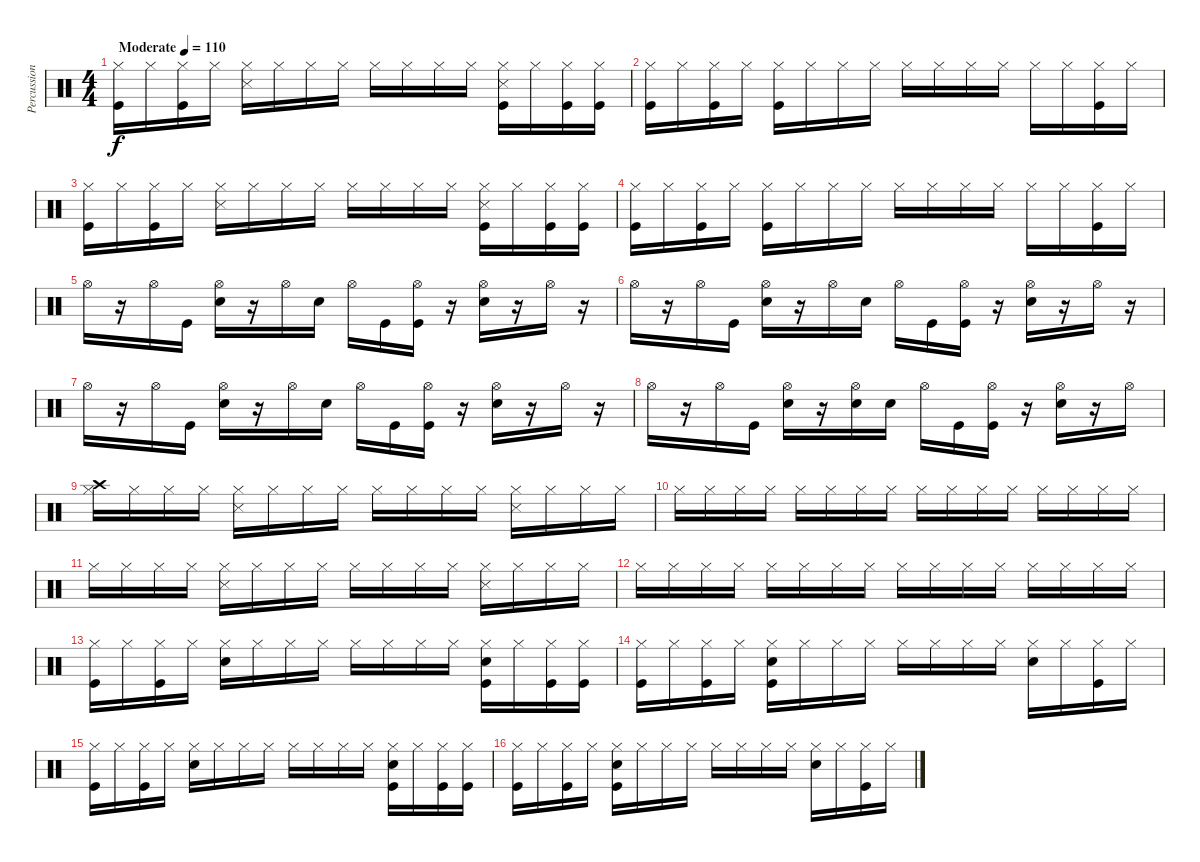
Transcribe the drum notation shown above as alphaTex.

\track ("Percussion" "Percussion") {instrument percussion}
\staff {score}
\articulation defaults
\ts (4 4)
\tempo (110 "Moderate")
\clef neutral
\ks c
("Hi-Hat (closed)" "Kick (hit)").16{dy f} "Hi-Hat (closed)".16 ("Hi-Hat (closed)" "Kick (hit)").16 "Hi-Hat (closed)".16 ("Hi-Hat (closed)" "Snare (side stick) 3").16 "Hi-Hat (closed)".16 "Hi-Hat (closed)".16 "Hi-Hat (closed)".16 "Hi-Hat (closed)".16 "Hi-Hat (closed)".16 "Hi-Hat (closed)".16 "Hi-Hat (closed)".16 ("Hi-Hat (closed)" "Snare (side stick) 3" "Kick (hit)").16 "Hi-Hat (closed)".16 ("Hi-Hat (closed)" "Kick (hit)").16 ("Hi-Hat (closed)" "Kick (hit)").16 |
("Hi-Hat (closed)" "Kick (hit)").16 "Hi-Hat (closed)".16 ("Hi-Hat (closed)" "Kick (hit)").16 "Hi-Hat (closed)".16 ("Hi-Hat (closed)" "Kick (hit)").16 "Hi-Hat (closed)".16 "Hi-Hat (closed)".16 "Hi-Hat (closed)".16 "Hi-Hat (closed)".16 "Hi-Hat (closed)".16 "Hi-Hat (closed)".16 "Hi-Hat (closed)".16 "Hi-Hat (closed)".16 "Hi-Hat (closed)".16 ("Hi-Hat (closed)" "Kick (hit)").16 "Hi-Hat (closed)".16 |
("Hi-Hat (closed)" "Kick (hit)").16 "Hi-Hat (closed)".16 ("Hi-Hat (closed)" "Kick (hit)").16 "Hi-Hat (closed)".16 ("Hi-Hat (closed)" "Snare (side stick) 3").16 "Hi-Hat (closed)".16 "Hi-Hat (closed)".16 "Hi-Hat (closed)".16 "Hi-Hat (closed)".16 "Hi-Hat (closed)".16 "Hi-Hat (closed)".16 "Hi-Hat (closed)".16 ("Hi-Hat (closed)" "Snare (side stick) 3" "Kick (hit)").16 "Hi-Hat (closed)".16 ("Hi-Hat (closed)" "Kick (hit)").16 ("Hi-Hat (closed)" "Kick (hit)").16 |
("Hi-Hat (closed)" "Kick (hit)").16 "Hi-Hat (closed)".16 ("Hi-Hat (closed)" "Kick (hit)").16 "Hi-Hat (closed)".16 ("Hi-Hat (closed)" "Kick (hit)").16 "Hi-Hat (closed)".16 "Hi-Hat (closed)".16 "Hi-Hat (closed)".16 "Hi-Hat (closed)".16 "Hi-Hat (closed)".16 "Hi-Hat (closed)".16 "Hi-Hat (closed)".16 "Hi-Hat (closed)".16 "Hi-Hat (closed)".16 ("Hi-Hat (closed)" "Kick (hit)").16 "Hi-Hat (closed)".16 |
"Hi-Hat (open)".16 r.16 "Hi-Hat (open)".16 "Kick (hit)".16 ("Hi-Hat (open)" "Snare (hit) 2").16 r.16 "Hi-Hat (open)".16 "Snare (hit) 2".16 "Hi-Hat (open)".16 "Kick (hit)".16 ("Hi-Hat (open)" "Kick (hit)").16 r.16 ("Hi-Hat (open)" "Snare (hit) 2").16 r.16 "Hi-Hat (open)".16 r.16 |
"Hi-Hat (open)".16 r.16 "Hi-Hat (open)".16 "Kick (hit)".16 ("Hi-Hat (open)" "Snare (hit) 2").16 r.16 "Hi-Hat (open)".16 "Snare (hit) 2".16 "Hi-Hat (open)".16 "Kick (hit)".16 ("Hi-Hat (open)" "Kick (hit)").16 r.16 ("Hi-Hat (open)" "Snare (hit) 2").16 r.16 "Hi-Hat (open)".16 r.16 |
"Hi-Hat (open)".16 r.16 "Hi-Hat (open)".16 "Kick (hit)".16 ("Hi-Hat (open)" "Snare (hit) 2").16 r.16 "Hi-Hat (open)".16 "Snare (hit) 2".16 "Hi-Hat (open)".16 "Kick (hit)".16 ("Hi-Hat (open)" "Kick (hit)").16 r.16 ("Hi-Hat (open)" "Snare (hit) 2").16 r.16 "Hi-Hat (open)".16 r.16 |
"Hi-Hat (open)".16 r.16 "Hi-Hat (open)".16 "Kick (hit)".16 ("Hi-Hat (open)" "Snare (hit) 2").16 r.16 ("Hi-Hat (open)" "Snare (hit) 2").16 "Snare (hit) 2".16 "Hi-Hat (open)".16 "Kick (hit)".16 ("Hi-Hat (open)" "Kick (hit)").16 r.16 ("Hi-Hat (open)" "Snare (hit) 2").16 r.16 "Hi-Hat (open)".16 |
("Hi-Hat (closed)" "Crash high (hit)").16 "Hi-Hat (closed)".16 "Hi-Hat (closed)".16 "Hi-Hat (closed)".16 ("Hi-Hat (closed)" "Snare (side stick) 3").16 "Hi-Hat (closed)".16 "Hi-Hat (closed)".16 "Hi-Hat (closed)".16 "Hi-Hat (closed)".16 "Hi-Hat (closed)".16 "Hi-Hat (closed)".16 "Hi-Hat (closed)".16 ("Hi-Hat (closed)" "Snare (side stick) 3").16 "Hi-Hat (closed)".16 "Hi-Hat (closed)".16 "Hi-Hat (closed)".16 |
"Hi-Hat (closed)".16 "Hi-Hat (closed)".16 "Hi-Hat (closed)".16 "Hi-Hat (closed)".16 "Hi-Hat (closed)".16 "Hi-Hat (closed)".16 "Hi-Hat (closed)".16 "Hi-Hat (closed)".16 "Hi-Hat (closed)".16 "Hi-Hat (closed)".16 "Hi-Hat (closed)".16 "Hi-Hat (closed)".16 "Hi-Hat (closed)".16 "Hi-Hat (closed)".16 "Hi-Hat (closed)".16 "Hi-Hat (closed)".16 |
"Hi-Hat (closed)".16 "Hi-Hat (closed)".16 "Hi-Hat (closed)".16 "Hi-Hat (closed)".16 ("Hi-Hat (closed)" "Snare (side stick) 3").16 "Hi-Hat (closed)".16 "Hi-Hat (closed)".16 "Hi-Hat (closed)".16 "Hi-Hat (closed)".16 "Hi-Hat (closed)".16 "Hi-Hat (closed)".16 "Hi-Hat (closed)".16 ("Hi-Hat (closed)" "Snare (side stick) 3").16 "Hi-Hat (closed)".16 "Hi-Hat (closed)".16 "Hi-Hat (closed)".16 |
"Hi-Hat (closed)".16 "Hi-Hat (closed)".16 "Hi-Hat (closed)".16 "Hi-Hat (closed)".16 "Hi-Hat (closed)".16 "Hi-Hat (closed)".16 "Hi-Hat (closed)".16 "Hi-Hat (closed)".16 "Hi-Hat (closed)".16 "Hi-Hat (closed)".16 "Hi-Hat (closed)".16 "Hi-Hat (closed)".16 "Hi-Hat (closed)".16 "Hi-Hat (closed)".16 "Hi-Hat (closed)".16 "Hi-Hat (closed)".16 |
("Hi-Hat (closed)" "Kick (hit)").16 "Hi-Hat (closed)".16 ("Hi-Hat (closed)" "Kick (hit)").16 "Hi-Hat (closed)".16 ("Hi-Hat (closed)" "Snare (hit) 2").16 "Hi-Hat (closed)".16 "Hi-Hat (closed)".16 "Hi-Hat (closed)".16 "Hi-Hat (closed)".16 "Hi-Hat (closed)".16 "Hi-Hat (closed)".16 "Hi-Hat (closed)".16 ("Hi-Hat (closed)" "Snare (hit) 2" "Kick (hit)").16 "Hi-Hat (closed)".16 ("Hi-Hat (closed)" "Kick (hit)").16 ("Hi-Hat (closed)" "Kick (hit)").16 |
("Hi-Hat (closed)" "Kick (hit)").16 "Hi-Hat (closed)".16 ("Hi-Hat (closed)" "Kick (hit)").16 "Hi-Hat (closed)".16 ("Hi-Hat (closed)" "Snare (hit) 2" "Kick (hit)").16 "Hi-Hat (closed)".16 "Hi-Hat (closed)".16 "Hi-Hat (closed)".16 "Hi-Hat (closed)".16 "Hi-Hat (closed)".16 "Hi-Hat (closed)".16 "Hi-Hat (closed)".16 ("Hi-Hat (closed)" "Snare (hit) 2").16 "Hi-Hat (closed)".16 ("Hi-Hat (closed)" "Kick (hit)").16 "Hi-Hat (closed)".16 |
("Hi-Hat (closed)" "Kick (hit)").16 "Hi-Hat (closed)".16 ("Hi-Hat (closed)" "Kick (hit)").16 "Hi-Hat (closed)".16 ("Hi-Hat (closed)" "Snare (hit) 2").16 "Hi-Hat (closed)".16 "Hi-Hat (closed)".16 "Hi-Hat (closed)".16 "Hi-Hat (closed)".16 "Hi-Hat (closed)".16 "Hi-Hat (closed)".16 "Hi-Hat (closed)".16 ("Hi-Hat (closed)" "Snare (hit) 2" "Kick (hit)").16 "Hi-Hat (closed)".16 ("Hi-Hat (closed)" "Kick (hit)").16 ("Hi-Hat (closed)" "Kick (hit)").16 |
("Hi-Hat (closed)" "Kick (hit)").16 "Hi-Hat (closed)".16 ("Hi-Hat (closed)" "Kick (hit)").16 "Hi-Hat (closed)".16 ("Hi-Hat (closed)" "Snare (hit) 2" "Kick (hit)").16 "Hi-Hat (closed)".16 "Hi-Hat (closed)".16 "Hi-Hat (closed)".16 "Hi-Hat (closed)".16 "Hi-Hat (closed)".16 "Hi-Hat (closed)".16 "Hi-Hat (closed)".16 ("Hi-Hat (closed)" "Snare (hit) 2").16 "Hi-Hat (closed)".16 ("Hi-Hat (closed)" "Kick (hit)").16 "Hi-Hat (closed)".16
